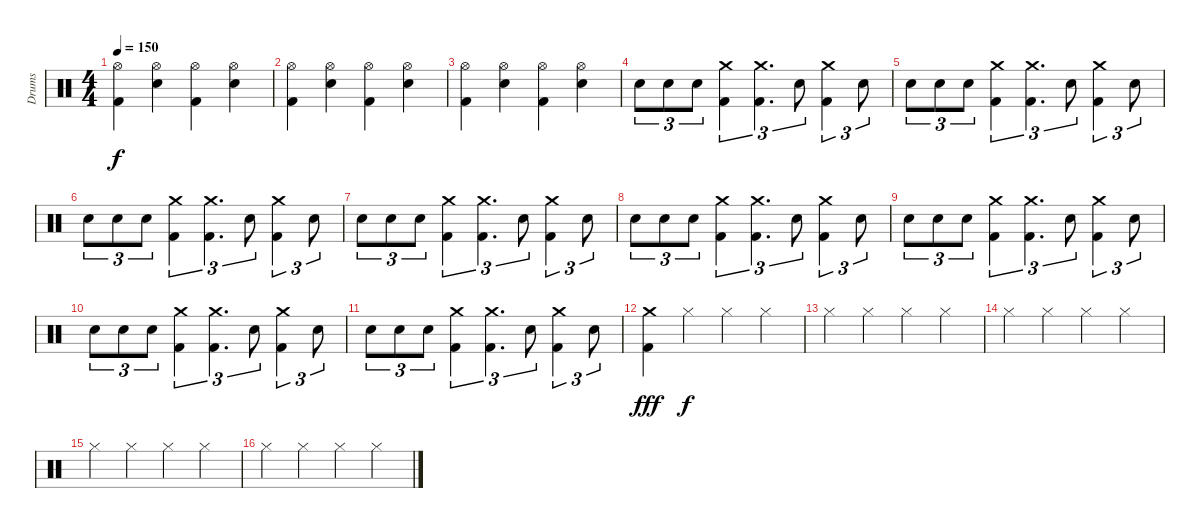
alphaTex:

\track ("Drums" "Drums") {instrument percussion}
\staff {score}
\articulation defaults
\ts (4 4)
\tempo 150
\clef neutral
\ks c
("Hi-Hat (open)" "Kick (hit) 2").4{dy f} ("Hi-Hat (open)" "Snare (hit) 2").4 ("Hi-Hat (open)" "Kick (hit) 2").4 ("Hi-Hat (open)" "Snare (hit) 2").4 |
("Hi-Hat (open)" "Kick (hit) 2").4 ("Hi-Hat (open)" "Snare (hit) 2").4 ("Hi-Hat (open)" "Kick (hit) 2").4 ("Hi-Hat (open)" "Snare (hit) 2").4 |
("Hi-Hat (open)" "Kick (hit) 2").4 ("Hi-Hat (open)" "Snare (hit) 2").4 ("Hi-Hat (open)" "Kick (hit) 2").4 ("Hi-Hat (open)" "Snare (hit) 2").4 |
"Snare (hit) 2".8{tu (3 2)} "Snare (hit) 2".8{tu (3 2)} "Snare (hit) 2".8{tu (3 2)} ("Crash medium (hit)" "Kick (hit) 2").4{tu (3 2)} ("Crash medium (hit)" "Kick (hit) 2").4{d tu (3 2)} "Snare (hit) 2".8{tu (3 2)} ("Crash medium (hit)" "Kick (hit) 2").4{tu (3 2)} "Snare (hit) 2".8{tu (3 2)} |
"Snare (hit) 2".8{tu (3 2)} "Snare (hit) 2".8{tu (3 2)} "Snare (hit) 2".8{tu (3 2)} ("Crash medium (hit)" "Kick (hit) 2").4{tu (3 2)} ("Crash medium (hit)" "Kick (hit) 2").4{d tu (3 2)} "Snare (hit) 2".8{tu (3 2)} ("Crash medium (hit)" "Kick (hit) 2").4{tu (3 2)} "Snare (hit) 2".8{tu (3 2)} |
"Snare (hit) 2".8{tu (3 2)} "Snare (hit) 2".8{tu (3 2)} "Snare (hit) 2".8{tu (3 2)} ("Crash medium (hit)" "Kick (hit) 2").4{tu (3 2)} ("Crash medium (hit)" "Kick (hit) 2").4{d tu (3 2)} "Snare (hit) 2".8{tu (3 2)} ("Crash medium (hit)" "Kick (hit) 2").4{tu (3 2)} "Snare (hit) 2".8{tu (3 2)} |
"Snare (hit) 2".8{tu (3 2)} "Snare (hit) 2".8{tu (3 2)} "Snare (hit) 2".8{tu (3 2)} ("Crash medium (hit)" "Kick (hit) 2").4{tu (3 2)} ("Crash medium (hit)" "Kick (hit) 2").4{d tu (3 2)} "Snare (hit) 2".8{tu (3 2)} ("Crash medium (hit)" "Kick (hit) 2").4{tu (3 2)} "Snare (hit) 2".8{tu (3 2)} |
"Snare (hit) 2".8{tu (3 2)} "Snare (hit) 2".8{tu (3 2)} "Snare (hit) 2".8{tu (3 2)} ("Crash medium (hit)" "Kick (hit) 2").4{tu (3 2)} ("Crash medium (hit)" "Kick (hit) 2").4{d tu (3 2)} "Snare (hit) 2".8{tu (3 2)} ("Crash medium (hit)" "Kick (hit) 2").4{tu (3 2)} "Snare (hit) 2".8{tu (3 2)} |
"Snare (hit) 2".8{tu (3 2)} "Snare (hit) 2".8{tu (3 2)} "Snare (hit) 2".8{tu (3 2)} ("Crash medium (hit)" "Kick (hit) 2").4{tu (3 2)} ("Crash medium (hit)" "Kick (hit) 2").4{d tu (3 2)} "Snare (hit) 2".8{tu (3 2)} ("Crash medium (hit)" "Kick (hit) 2").4{tu (3 2)} "Snare (hit) 2".8{tu (3 2)} |
"Snare (hit) 2".8{tu (3 2)} "Snare (hit) 2".8{tu (3 2)} "Snare (hit) 2".8{tu (3 2)} ("Crash medium (hit)" "Kick (hit) 2").4{tu (3 2)} ("Crash medium (hit)" "Kick (hit) 2").4{d tu (3 2)} "Snare (hit) 2".8{tu (3 2)} ("Crash medium (hit)" "Kick (hit) 2").4{tu (3 2)} "Snare (hit) 2".8{tu (3 2)} |
"Snare (hit) 2".8{tu (3 2)} "Snare (hit) 2".8{tu (3 2)} "Snare (hit) 2".8{tu (3 2)} ("Crash medium (hit)" "Kick (hit) 2").4{tu (3 2)} ("Crash medium (hit)" "Kick (hit) 2").4{d tu (3 2)} "Snare (hit) 2".8{tu (3 2)} ("Crash medium (hit)" "Kick (hit) 2").4{tu (3 2)} "Snare (hit) 2".8{tu (3 2)} |
("Crash medium (hit)" "Kick (hit) 2").4{dy fff volume 11} "Hi-Hat (closed)".4{dy f} "Hi-Hat (closed)".4 "Hi-Hat (closed)".4 |
"Hi-Hat (closed)".4 "Hi-Hat (closed)".4 "Hi-Hat (closed)".4 "Hi-Hat (closed)".4 |
"Hi-Hat (closed)".4 "Hi-Hat (closed)".4 "Hi-Hat (closed)".4 "Hi-Hat (closed)".4 |
"Hi-Hat (closed)".4 "Hi-Hat (closed)".4 "Hi-Hat (closed)".4 "Hi-Hat (closed)".4 |
"Hi-Hat (closed)".4 "Hi-Hat (closed)".4 "Hi-Hat (closed)".4 "Hi-Hat (closed)".4
